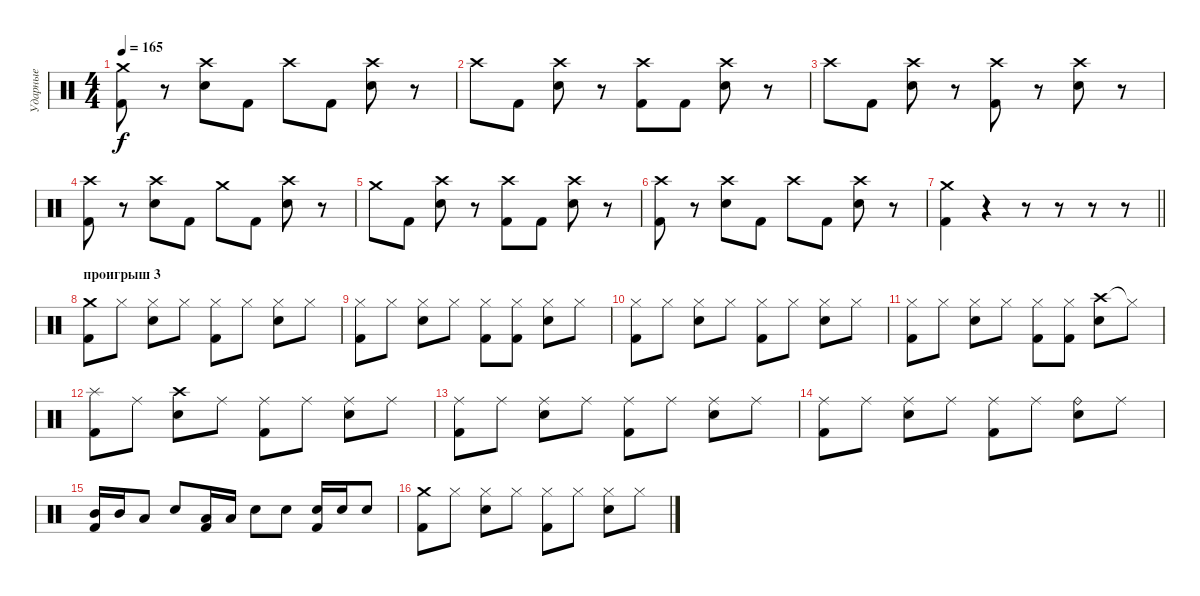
\track ("Ударные" "Ударные") {instrument percussion}
\staff {score}
\articulation defaults
\ts (4 4)
\tempo 165
\clef neutral
\ks c
("Crash medium (hit)" "Kick (hit) 2").8{dy f} r.8 ("Crash high (hit)" "Snare (hit) 2").8 "Kick (hit) 2".8 "Crash high (hit)".8 "Kick (hit) 2".8 ("Crash high (hit)" "Snare (hit) 2").8 r.8 |
"Crash high (hit)".8 "Kick (hit) 2".8 ("Crash high (hit)" "Snare (hit) 2").8 r.8 ("Crash high (hit)" "Kick (hit) 2").8 "Kick (hit) 2".8 ("Crash high (hit)" "Snare (hit) 2").8 r.8 |
"Crash high (hit)".8 "Kick (hit) 2".8 ("Crash high (hit)" "Snare (hit) 2").8 r.8 ("Crash high (hit)" "Kick (hit) 2").8 r.8 ("Crash high (hit)" "Snare (hit) 2").8 r.8 |
("Crash high (hit)" "Kick (hit) 2").8 r.8 ("Crash high (hit)" "Snare (hit) 2").8 "Kick (hit) 2".8 "Crash medium (hit)".8 "Kick (hit) 2".8 ("Crash high (hit)" "Snare (hit) 2").8 r.8 |
"Crash medium (hit)".8 "Kick (hit) 2".8 ("Crash high (hit)" "Snare (hit) 2").8 r.8 ("Crash high (hit)" "Kick (hit) 2").8 "Kick (hit) 2".8 ("Crash high (hit)" "Snare (hit) 2").8 r.8 |
("Crash high (hit)" "Kick (hit) 2").8 r.8 ("Crash high (hit)" "Snare (hit) 2").8 "Kick (hit) 2".8 "Crash high (hit)".8 "Kick (hit) 2".8 ("Crash high (hit)" "Snare (hit) 2").8 r.8 |
\barLineRight lightlight
("Crash medium (hit)" "Kick (hit) 2").4 r.4 r.8 r.8 r.8 r.8 |
\section ("" "проигрыш 3")
("Crash medium (hit)" "Kick (hit) 2").8 "Hi-Hat (closed)".8 ("Hi-Hat (closed)" "Snare (hit) 2").8 "Hi-Hat (closed)".8 ("Hi-Hat (closed)" "Kick (hit) 2").8 "Hi-Hat (closed)".8 ("Hi-Hat (closed)" "Snare (hit) 2").8 "Hi-Hat (closed)".8 |
("Hi-Hat (closed)" "Kick (hit) 2").8 "Hi-Hat (closed)".8 ("Hi-Hat (closed)" "Snare (hit) 2").8 "Hi-Hat (closed)".8 ("Hi-Hat (closed)" "Kick (hit) 2").8 ("Hi-Hat (closed)" "Kick (hit) 2").8 ("Hi-Hat (closed)" "Snare (hit) 2").8 "Hi-Hat (closed)".8 |
("Hi-Hat (closed)" "Kick (hit) 2").8 "Hi-Hat (closed)".8 ("Hi-Hat (closed)" "Snare (hit) 2").8 "Hi-Hat (closed)".8 ("Hi-Hat (closed)" "Kick (hit) 2").8 "Hi-Hat (closed)".8 ("Hi-Hat (closed)" "Snare (hit) 2").8 "Hi-Hat (closed)".8 |
("Hi-Hat (closed)" "Kick (hit) 2").8 "Hi-Hat (closed)".8 ("Hi-Hat (closed)" "Snare (hit) 2").8 "Hi-Hat (closed)".8 ("Hi-Hat (closed)" "Kick (hit) 2").8 ("Hi-Hat (closed)" "Kick (hit) 2").8 ("Crash high (hit)" "Snare (hit) 2").8 "Hi-Hat (closed)"{t}.8 |
("Splash (hit)" "Kick (hit) 2").8 "Ride (middle)".8 ("Crash high (hit)" "Snare (hit) 2").8 "Ride (middle)".8 ("Ride (middle)" "Kick (hit) 2").8 "Ride (middle)".8 ("Ride (middle)" "Snare (hit) 2").8 "Ride (middle)".8 |
("Ride (middle)" "Kick (hit) 2").8 "Ride (middle)".8 ("Ride (middle)" "Snare (hit) 2").8 "Ride (middle)".8 ("Ride (middle)" "Kick (hit) 2").8 "Ride (middle)".8 ("Ride (middle)" "Snare (hit) 2").8 "Ride (middle)".8 |
("Ride (middle)" "Kick (hit) 2").8 "Ride (middle)".8 ("Ride (middle)" "Snare (hit) 2").8 "Ride (middle)".8 ("Ride (middle)" "Kick (hit) 2").8 "Ride (middle)".8 ("Ride (bell)" "Snare (hit) 2").8 "Ride (middle)".8 |
("Mid Tom (hit)" "Kick (hit) 2").16 "Mid Tom (hit)".16 "Low Tom (hit)".8 "Snare (hit) 2".8 ("Low Tom (hit)" "Kick (hit) 2").16 "Low Tom (hit)".16 "Snare (hit) 2".8 "Snare (hit) 2".8 ("Snare (hit) 2" "Kick (hit) 2").16 "Snare (hit) 2".16 "Snare (hit) 2".8 |
("Crash medium (hit)" "Kick (hit) 2").8 "Hi-Hat (closed)".8 ("Hi-Hat (closed)" "Snare (hit) 2").8 "Hi-Hat (closed)".8 ("Hi-Hat (closed)" "Kick (hit) 2").8 "Hi-Hat (closed)".8 ("Hi-Hat (closed)" "Snare (hit) 2").8 "Hi-Hat (closed)".8
